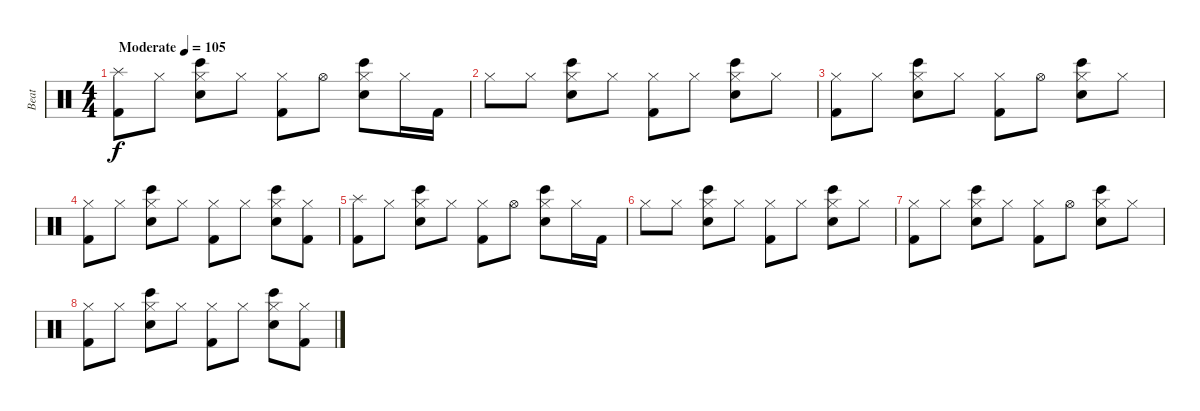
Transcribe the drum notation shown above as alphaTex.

\track ("Beat" "Beat") {instrument percussion}
\staff {score}
\articulation defaults
\ts (4 4)
\tempo (105 "Moderate")
\clef neutral
\ks c
("Splash (hit)" "Kick (hit) 2").8{dy f} "Hi-Hat (closed)".8 ("Hi-Hat (closed)" "Bongo High (hit)" "Electric Snare (hit)").8 "Hi-Hat (closed)".8 ("Hi-Hat (closed)" "Kick (hit) 2").8 "Hi-Hat (open)".8 ("Hi-Hat (closed)" "Bongo High (hit)" "Electric Snare (hit)").8 "Hi-Hat (closed)".16 "Kick (hit) 2".16 |
"Hi-Hat (closed)".8 "Hi-Hat (closed)".8 ("Hi-Hat (closed)" "Bongo High (hit)" "Electric Snare (hit)").8 "Hi-Hat (closed)".8 ("Hi-Hat (closed)" "Kick (hit) 2").8 "Hi-Hat (closed)".8 ("Hi-Hat (closed)" "Bongo High (hit)" "Electric Snare (hit)").8 "Hi-Hat (closed)".8 |
("Hi-Hat (closed)" "Kick (hit) 2").8 "Hi-Hat (closed)".8 ("Hi-Hat (closed)" "Bongo High (hit)" "Electric Snare (hit)").8 "Hi-Hat (closed)".8 ("Hi-Hat (closed)" "Kick (hit) 2").8 "Hi-Hat (open)".8 ("Hi-Hat (closed)" "Bongo High (hit)" "Electric Snare (hit)").8 "Hi-Hat (closed)".8 |
("Hi-Hat (closed)" "Kick (hit) 2").8 "Hi-Hat (closed)".8 ("Hi-Hat (closed)" "Bongo High (hit)" "Electric Snare (hit)").8 "Hi-Hat (closed)".8 ("Hi-Hat (closed)" "Kick (hit) 2").8 "Hi-Hat (closed)".8 ("Hi-Hat (closed)" "Bongo High (hit)" "Electric Snare (hit)").8 ("Hi-Hat (closed)" "Kick (hit) 2").8 |
("Splash (hit)" "Kick (hit) 2").8 "Hi-Hat (closed)".8 ("Hi-Hat (closed)" "Bongo High (hit)" "Electric Snare (hit)").8 "Hi-Hat (closed)".8 ("Hi-Hat (closed)" "Kick (hit) 2").8 "Hi-Hat (open)".8 ("Hi-Hat (closed)" "Bongo High (hit)" "Electric Snare (hit)").8 "Hi-Hat (closed)".16 "Kick (hit) 2".16 |
"Hi-Hat (closed)".8 "Hi-Hat (closed)".8 ("Hi-Hat (closed)" "Bongo High (hit)" "Electric Snare (hit)").8 "Hi-Hat (closed)".8 ("Hi-Hat (closed)" "Kick (hit) 2").8 "Hi-Hat (closed)".8 ("Hi-Hat (closed)" "Bongo High (hit)" "Electric Snare (hit)").8 "Hi-Hat (closed)".8 |
("Hi-Hat (closed)" "Kick (hit) 2").8 "Hi-Hat (closed)".8 ("Hi-Hat (closed)" "Bongo High (hit)" "Electric Snare (hit)").8 "Hi-Hat (closed)".8 ("Hi-Hat (closed)" "Kick (hit) 2").8 "Hi-Hat (open)".8 ("Hi-Hat (closed)" "Bongo High (hit)" "Electric Snare (hit)").8 "Hi-Hat (closed)".8 |
("Hi-Hat (closed)" "Kick (hit) 2").8 "Hi-Hat (closed)".8 ("Hi-Hat (closed)" "Bongo High (hit)" "Electric Snare (hit)").8 "Hi-Hat (closed)".8 ("Hi-Hat (closed)" "Kick (hit) 2").8 "Hi-Hat (closed)".8 ("Hi-Hat (closed)" "Bongo High (hit)" "Electric Snare (hit)").8 ("Hi-Hat (closed)" "Kick (hit) 2").8
